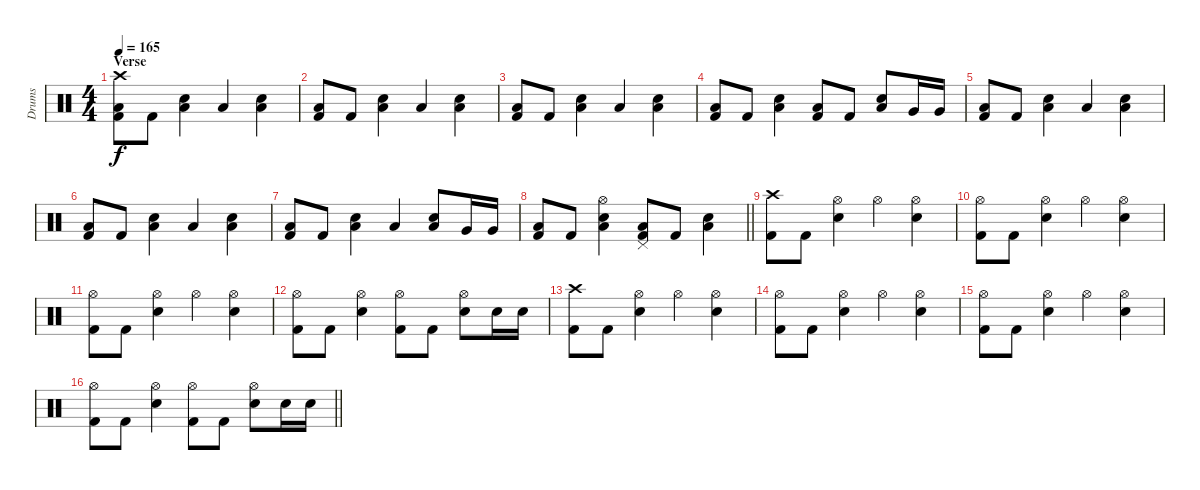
\track ("Drums" "Drums") {instrument percussion}
\staff {score}
\articulation defaults
\ts (4 4)
\section ("" "Verse")
\tempo 165
\clef neutral
\ks c
("Crash high (hit)" "Low Floor Tom (hit)" "Kick (hit) 2").8{dy f} "Kick (hit) 2".8 ("Electric Snare (hit)" "Low Floor Tom (hit)").4 "Low Floor Tom (hit)".4 ("Electric Snare (hit)" "Low Floor Tom (hit)").4 |
("Low Floor Tom (hit)" "Kick (hit) 2").8 "Kick (hit) 2".8 ("Electric Snare (hit)" "Low Floor Tom (hit)").4 "Low Floor Tom (hit)".4 ("Electric Snare (hit)" "Low Floor Tom (hit)").4 |
("Low Floor Tom (hit)" "Kick (hit) 2").8 "Kick (hit) 2".8 ("Electric Snare (hit)" "Low Floor Tom (hit)").4 "Low Floor Tom (hit)".4 ("Electric Snare (hit)" "Low Floor Tom (hit)").4 |
("Low Floor Tom (hit)" "Kick (hit) 2").8 "Kick (hit) 2".8 ("Electric Snare (hit)" "Low Floor Tom (hit)").4 ("Low Floor Tom (hit)" "Kick (hit) 2").8 "Kick (hit) 2".8 ("Electric Snare (hit)" "Low Floor Tom (hit)").8 "Very Low Tom (hit)".16 "Very Low Tom (hit)".16 |
("Low Floor Tom (hit)" "Kick (hit) 2").8 "Kick (hit) 2".8 ("Electric Snare (hit)" "Low Floor Tom (hit)").4 "Low Floor Tom (hit)".4 ("Electric Snare (hit)" "Low Floor Tom (hit)").4 |
("Low Floor Tom (hit)" "Kick (hit) 2").8 "Kick (hit) 2".8 ("Electric Snare (hit)" "Low Floor Tom (hit)").4 "Low Floor Tom (hit)".4 ("Electric Snare (hit)" "Low Floor Tom (hit)").4 |
("Low Floor Tom (hit)" "Kick (hit) 2").8 "Kick (hit) 2".8 ("Electric Snare (hit)" "Low Floor Tom (hit)").4 "Low Floor Tom (hit)".4 ("Electric Snare (hit)" "Low Floor Tom (hit)").8 "Very Low Tom (hit)".16 "Very Low Tom (hit)".16 |
\barLineRight lightlight
("Low Floor Tom (hit)" "Kick (hit) 2").8 "Kick (hit) 2".8 ("Hi-Hat (open)" "Electric Snare (hit)" "Low Floor Tom (hit)").4 ("Pedal Hi-Hat (hit)" "Low Floor Tom (hit)" "Kick (hit) 2").8 "Kick (hit) 2".8 ("Electric Snare (hit)" "Low Floor Tom (hit)").4 |
("Crash high (hit)" "Kick (hit) 2").8 "Kick (hit) 2".8 ("Hi-Hat (open)" "Electric Snare (hit)").4 "Hi-Hat (open)".4 ("Hi-Hat (open)" "Electric Snare (hit)").4 |
("Hi-Hat (open)" "Kick (hit) 2").8 "Kick (hit) 2".8 ("Hi-Hat (open)" "Electric Snare (hit)").4 "Hi-Hat (open)".4 ("Hi-Hat (open)" "Electric Snare (hit)").4 |
("Hi-Hat (open)" "Kick (hit) 2").8 "Kick (hit) 2".8 ("Hi-Hat (open)" "Electric Snare (hit)").4 "Hi-Hat (open)".4 ("Hi-Hat (open)" "Electric Snare (hit)").4 |
("Hi-Hat (open)" "Kick (hit) 2").8 "Kick (hit) 2".8 ("Hi-Hat (open)" "Electric Snare (hit)").4 ("Hi-Hat (open)" "Kick (hit) 2").8 "Kick (hit) 2".8 ("Hi-Hat (open)" "Electric Snare (hit)").8 "Electric Snare (hit)".16 "Electric Snare (hit)".16 |
("Crash high (hit)" "Kick (hit) 2").8 "Kick (hit) 2".8 ("Hi-Hat (open)" "Electric Snare (hit)").4 "Hi-Hat (open)".4 ("Hi-Hat (open)" "Electric Snare (hit)").4 |
("Hi-Hat (open)" "Kick (hit) 2").8 "Kick (hit) 2".8 ("Hi-Hat (open)" "Electric Snare (hit)").4 "Hi-Hat (open)".4 ("Hi-Hat (open)" "Electric Snare (hit)").4 |
("Hi-Hat (open)" "Kick (hit) 2").8 "Kick (hit) 2".8 ("Hi-Hat (open)" "Electric Snare (hit)").4 "Hi-Hat (open)".4 ("Hi-Hat (open)" "Electric Snare (hit)").4 |
\barLineRight lightlight
("Hi-Hat (open)" "Kick (hit) 2").8 "Kick (hit) 2".8 ("Hi-Hat (open)" "Electric Snare (hit)").4 ("Hi-Hat (open)" "Kick (hit) 2").8 "Kick (hit) 2".8 ("Hi-Hat (open)" "Electric Snare (hit)").8 "Electric Snare (hit)".16 "Electric Snare (hit)".16
